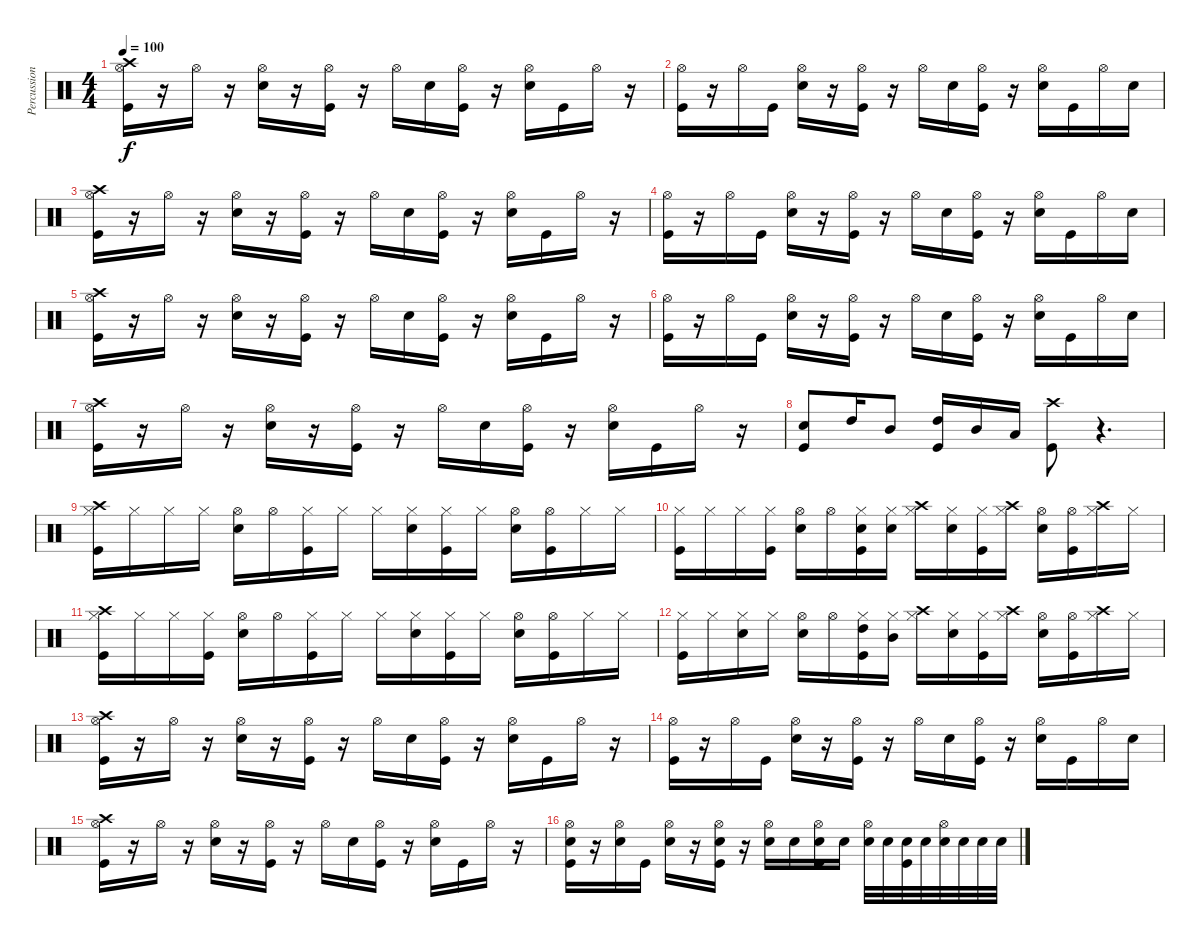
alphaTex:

\track ("Percussion" "Percussion") {instrument percussion}
\staff {score}
\articulation defaults
\ts (4 4)
\tempo 100
\clef neutral
\ks c
("Crash high (hit)" "Hi-Hat (open)" "Kick (hit)").16{dy f} r.16 "Hi-Hat (open)".16 r.16 ("Hi-Hat (open)" "Snare (hit) 2").16 r.16 ("Hi-Hat (open)" "Kick (hit)").16 r.16 "Hi-Hat (open)".16 "Snare (hit) 2".16 ("Hi-Hat (open)" "Kick (hit)").16 r.16 ("Hi-Hat (open)" "Snare (hit) 2").16 "Kick (hit)".16 "Hi-Hat (open)".16 r.16 |
("Hi-Hat (open)" "Kick (hit)").16 r.16 "Hi-Hat (open)".16 "Kick (hit)".16 ("Hi-Hat (open)" "Snare (hit) 2").16 r.16 ("Hi-Hat (open)" "Kick (hit)").16 r.16 "Hi-Hat (open)".16 "Snare (hit) 2".16 ("Hi-Hat (open)" "Kick (hit)").16 r.16 ("Hi-Hat (open)" "Snare (hit) 2").16 "Kick (hit)".16 "Hi-Hat (open)".16 "Snare (hit) 2".16 |
("Crash high (hit)" "Hi-Hat (open)" "Kick (hit)").16 r.16 "Hi-Hat (open)".16 r.16 ("Hi-Hat (open)" "Snare (hit) 2").16 r.16 ("Hi-Hat (open)" "Kick (hit)").16 r.16 "Hi-Hat (open)".16 "Snare (hit) 2".16 ("Hi-Hat (open)" "Kick (hit)").16 r.16 ("Hi-Hat (open)" "Snare (hit) 2").16 "Kick (hit)".16 "Hi-Hat (open)".16 r.16 |
("Hi-Hat (open)" "Kick (hit)").16 r.16 "Hi-Hat (open)".16 "Kick (hit)".16 ("Hi-Hat (open)" "Snare (hit) 2").16 r.16 ("Hi-Hat (open)" "Kick (hit)").16 r.16 "Hi-Hat (open)".16 "Snare (hit) 2".16 ("Hi-Hat (open)" "Kick (hit)").16 r.16 ("Hi-Hat (open)" "Snare (hit) 2").16 "Kick (hit)".16 "Hi-Hat (open)".16 "Snare (hit) 2".16 |
("Crash high (hit)" "Hi-Hat (open)" "Kick (hit)").16 r.16 "Hi-Hat (open)".16 r.16 ("Hi-Hat (open)" "Snare (hit) 2").16 r.16 ("Hi-Hat (open)" "Kick (hit)").16 r.16 "Hi-Hat (open)".16 "Snare (hit) 2".16 ("Hi-Hat (open)" "Kick (hit)").16 r.16 ("Hi-Hat (open)" "Snare (hit) 2").16 "Kick (hit)".16 "Hi-Hat (open)".16 r.16 |
("Hi-Hat (open)" "Kick (hit)").16 r.16 "Hi-Hat (open)".16 "Kick (hit)".16 ("Hi-Hat (open)" "Snare (hit) 2").16 r.16 ("Hi-Hat (open)" "Kick (hit)").16 r.16 "Hi-Hat (open)".16 "Snare (hit) 2".16 ("Hi-Hat (open)" "Kick (hit)").16 r.16 ("Hi-Hat (open)" "Snare (hit) 2").16 "Kick (hit)".16 "Hi-Hat (open)".16 "Snare (hit) 2".16 |
("Crash high (hit)" "Hi-Hat (open)" "Kick (hit)").16 r.16 "Hi-Hat (open)".16 r.16 ("Hi-Hat (open)" "Snare (hit) 2").16 r.16 ("Hi-Hat (open)" "Kick (hit)").16 r.16 "Hi-Hat (open)".16 "Snare (hit) 2".16 ("Hi-Hat (open)" "Kick (hit)").16 r.16 ("Hi-Hat (open)" "Snare (hit) 2").16 "Kick (hit)".16 "Hi-Hat (open)".16 r.16 |
("Snare (hit) 2" "Kick (hit)").8 "High Tom (hit)".16 "Mid Tom (hit)".8 ("High Tom (hit)" "Kick (hit)").16 "Mid Tom (hit)".16 "Low Tom (hit)".16 ("Crash high (hit)" "Kick (hit)").8 r.4{d} |
("Crash high (hit)" "Hi-Hat (closed)" "Kick (hit)").16 "Hi-Hat (closed)".16 "Hi-Hat (closed)".16 "Hi-Hat (closed)".16 ("Hi-Hat (open)" "Snare (hit) 2").16 "Hi-Hat (open)".16 ("Hi-Hat (closed)" "Kick (hit)").16 "Hi-Hat (closed)".16 "Hi-Hat (closed)".16 ("Hi-Hat (closed)" "Snare (hit) 2").16 ("Hi-Hat (closed)" "Kick (hit)").16 "Hi-Hat (closed)".16 ("Hi-Hat (open)" "Snare (hit) 2").16 ("Hi-Hat (open)" "Kick (hit)").16 "Hi-Hat (closed)".16 "Hi-Hat (closed)".16 |
("Hi-Hat (closed)" "Kick (hit)").16 "Hi-Hat (closed)".16 "Hi-Hat (closed)".16 ("Hi-Hat (closed)" "Kick (hit)").16 ("Hi-Hat (open)" "Snare (hit) 2").16 "Hi-Hat (open)".16 ("Hi-Hat (closed)" "Snare (hit) 2" "Kick (hit)").16 ("Hi-Hat (closed)" "Snare (hit) 2").16 ("Crash high (hit)" "Hi-Hat (closed)").16 ("Hi-Hat (closed)" "Snare (hit) 2").16 ("Hi-Hat (closed)" "Kick (hit)").16 ("Crash high (hit)" "Hi-Hat (closed)").16 ("Hi-Hat (open)" "Snare (hit) 2").16 ("Hi-Hat (open)" "Kick (hit)").16 ("Crash high (hit)" "Hi-Hat (closed)").16 "Hi-Hat (closed)".16 |
("Crash high (hit)" "Hi-Hat (closed)" "Kick (hit)").16 "Hi-Hat (closed)".16 "Hi-Hat (closed)".16 ("Hi-Hat (closed)" "Kick (hit)").16 ("Hi-Hat (open)" "Snare (hit) 2").16 "Hi-Hat (open)".16 ("Hi-Hat (closed)" "Kick (hit)").16 "Hi-Hat (closed)".16 "Hi-Hat (closed)".16 ("Hi-Hat (closed)" "Snare (hit) 2").16 ("Hi-Hat (closed)" "Kick (hit)").16 "Hi-Hat (closed)".16 ("Hi-Hat (open)" "Snare (hit) 2").16 ("Hi-Hat (open)" "Kick (hit)").16 "Hi-Hat (closed)".16 "Hi-Hat (closed)".16 |
("Hi-Hat (closed)" "Kick (hit)").16 "Hi-Hat (closed)".16 ("Hi-Hat (closed)" "Snare (hit) 2").16 "Hi-Hat (closed)".16 ("Hi-Hat (open)" "Snare (hit) 2").16 "Hi-Hat (open)".16 ("Hi-Hat (closed)" "High Tom (hit)" "Kick (hit)").16 ("Hi-Hat (closed)" "Mid Tom (hit)").16 ("Crash high (hit)" "Hi-Hat (closed)").16 ("Hi-Hat (closed)" "Snare (hit) 2").16 ("Hi-Hat (closed)" "Kick (hit)").16 ("Crash high (hit)" "Hi-Hat (closed)").16 ("Hi-Hat (open)" "Snare (hit) 2").16 ("Hi-Hat (open)" "Kick (hit)").16 ("Crash high (hit)" "Hi-Hat (closed)").16 "Hi-Hat (closed)".16 |
("Crash high (hit)" "Hi-Hat (open)" "Kick (hit)").16 r.16 "Hi-Hat (open)".16 r.16 ("Hi-Hat (open)" "Snare (hit) 2").16 r.16 ("Hi-Hat (open)" "Kick (hit)").16 r.16 "Hi-Hat (open)".16 "Snare (hit) 2".16 ("Hi-Hat (open)" "Kick (hit)").16 r.16 ("Hi-Hat (open)" "Snare (hit) 2").16 "Kick (hit)".16 "Hi-Hat (open)".16 r.16 |
("Hi-Hat (open)" "Kick (hit)").16 r.16 "Hi-Hat (open)".16 "Kick (hit)".16 ("Hi-Hat (open)" "Snare (hit) 2").16 r.16 ("Hi-Hat (open)" "Kick (hit)").16 r.16 "Hi-Hat (open)".16 "Snare (hit) 2".16 ("Hi-Hat (open)" "Kick (hit)").16 r.16 ("Hi-Hat (open)" "Snare (hit) 2").16 "Kick (hit)".16 "Hi-Hat (open)".16 "Snare (hit) 2".16 |
("Crash high (hit)" "Hi-Hat (open)" "Kick (hit)").16 r.16 "Hi-Hat (open)".16 r.16 ("Hi-Hat (open)" "Snare (hit) 2").16 r.16 ("Hi-Hat (open)" "Kick (hit)").16 r.16 "Hi-Hat (open)".16 "Snare (hit) 2".16 ("Hi-Hat (open)" "Kick (hit)").16 r.16 ("Hi-Hat (open)" "Snare (hit) 2").16 "Kick (hit)".16 "Hi-Hat (open)".16 r.16 |
("Hi-Hat (open)" "Snare (hit) 2" "Kick (hit)").16 r.16 ("Hi-Hat (open)" "Snare (hit) 2").16 "Kick (hit)".16 ("Hi-Hat (open)" "Snare (hit) 2").16 r.16 ("Hi-Hat (open)" "Snare (hit) 2" "Kick (hit)").16 r.16 ("Hi-Hat (open)" "Snare (hit) 2").16 "Snare (hit) 2".16 ("Hi-Hat (open)" "Snare (hit) 2" "Kick (hit)").16 "Snare (hit) 2".16 ("Hi-Hat (open)" "Snare (hit) 2").32 "Snare (hit) 2".32 ("Snare (hit) 2" "Kick (hit)").32 "Snare (hit) 2".32 ("Hi-Hat (open)" "Snare (hit) 2").32 "Snare (hit) 2".32 "Snare (hit) 2".32 "Snare (hit) 2".32
